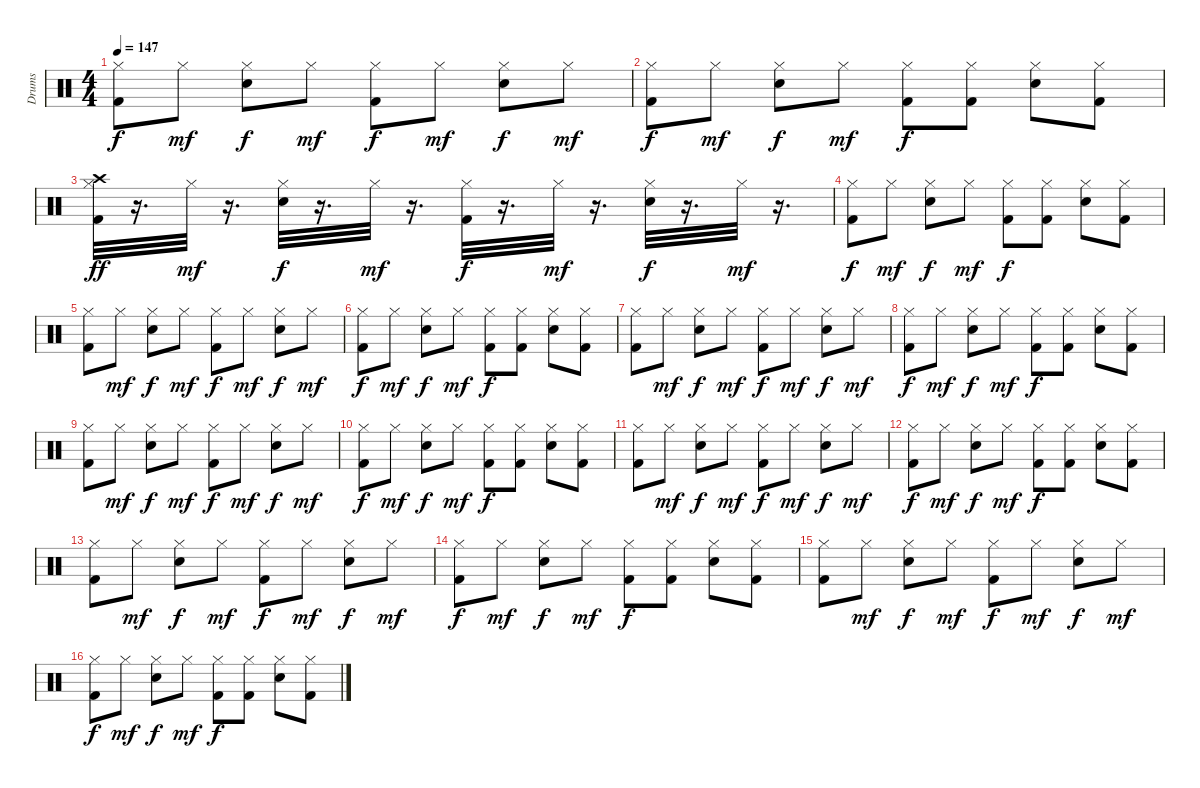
\track ("Drums" "Drums") {instrument percussion}
\staff {score}
\articulation defaults
\ts (4 4)
\tempo 147
\clef neutral
\ks c
("Hi-Hat (closed)" "Kick (hit) 2").8{dy f} "Hi-Hat (closed)".8{dy mf} ("Hi-Hat (closed)" "Snare (hit) 2").8{dy f} "Hi-Hat (closed)".8{dy mf} ("Hi-Hat (closed)" "Kick (hit) 2").8{dy f} "Hi-Hat (closed)".8{dy mf} ("Hi-Hat (closed)" "Snare (hit) 2").8{dy f} "Hi-Hat (closed)".8{dy mf} |
("Hi-Hat (closed)" "Kick (hit) 2").8{dy f} "Hi-Hat (closed)".8{dy mf} ("Hi-Hat (closed)" "Snare (hit) 2").8{dy f} "Hi-Hat (closed)".8{dy mf} ("Hi-Hat (closed)" "Kick (hit) 2").8{dy f} ("Hi-Hat (closed)" "Kick (hit) 2").8 ("Hi-Hat (closed)" "Snare (hit) 2").8 ("Hi-Hat (closed)" "Kick (hit) 2").8 |
("Kick (hit) 2" "Hi-Hat (closed)" "Crash high (hit)").32{dy ff} r.16{d} "Hi-Hat (closed)".32{dy mf} r.16{d} ("Snare (hit) 2" "Hi-Hat (closed)").32{dy f} r.16{d} "Hi-Hat (closed)".32{dy mf} r.16{d} ("Kick (hit) 2" "Hi-Hat (closed)").32{dy f} r.16{d} "Hi-Hat (closed)".32{dy mf} r.16{d} ("Snare (hit) 2" "Hi-Hat (closed)").32{dy f} r.16{d} "Hi-Hat (closed)".32{dy mf} r.16{d} |
("Hi-Hat (closed)" "Kick (hit) 2").8{dy f} "Hi-Hat (closed)".8{dy mf} ("Hi-Hat (closed)" "Snare (hit) 2").8{dy f} "Hi-Hat (closed)".8{dy mf} ("Hi-Hat (closed)" "Kick (hit) 2").8{dy f} ("Hi-Hat (closed)" "Kick (hit) 2").8 ("Hi-Hat (closed)" "Snare (hit) 2").8 ("Hi-Hat (closed)" "Kick (hit) 2").8 |
("Hi-Hat (closed)" "Kick (hit) 2").8 "Hi-Hat (closed)".8{dy mf} ("Hi-Hat (closed)" "Snare (hit) 2").8{dy f} "Hi-Hat (closed)".8{dy mf} ("Hi-Hat (closed)" "Kick (hit) 2").8{dy f} "Hi-Hat (closed)".8{dy mf} ("Hi-Hat (closed)" "Snare (hit) 2").8{dy f} "Hi-Hat (closed)".8{dy mf} |
("Hi-Hat (closed)" "Kick (hit) 2").8{dy f} "Hi-Hat (closed)".8{dy mf} ("Hi-Hat (closed)" "Snare (hit) 2").8{dy f} "Hi-Hat (closed)".8{dy mf} ("Hi-Hat (closed)" "Kick (hit) 2").8{dy f} ("Hi-Hat (closed)" "Kick (hit) 2").8 ("Hi-Hat (closed)" "Snare (hit) 2").8 ("Hi-Hat (closed)" "Kick (hit) 2").8 |
("Hi-Hat (closed)" "Kick (hit) 2").8 "Hi-Hat (closed)".8{dy mf} ("Hi-Hat (closed)" "Snare (hit) 2").8{dy f} "Hi-Hat (closed)".8{dy mf} ("Hi-Hat (closed)" "Kick (hit) 2").8{dy f} "Hi-Hat (closed)".8{dy mf} ("Hi-Hat (closed)" "Snare (hit) 2").8{dy f} "Hi-Hat (closed)".8{dy mf} |
("Hi-Hat (closed)" "Kick (hit) 2").8{dy f} "Hi-Hat (closed)".8{dy mf} ("Hi-Hat (closed)" "Snare (hit) 2").8{dy f} "Hi-Hat (closed)".8{dy mf} ("Hi-Hat (closed)" "Kick (hit) 2").8{dy f} ("Hi-Hat (closed)" "Kick (hit) 2").8 ("Hi-Hat (closed)" "Snare (hit) 2").8 ("Hi-Hat (closed)" "Kick (hit) 2").8 |
("Hi-Hat (closed)" "Kick (hit) 2").8 "Hi-Hat (closed)".8{dy mf} ("Hi-Hat (closed)" "Snare (hit) 2").8{dy f} "Hi-Hat (closed)".8{dy mf} ("Hi-Hat (closed)" "Kick (hit) 2").8{dy f} "Hi-Hat (closed)".8{dy mf} ("Hi-Hat (closed)" "Snare (hit) 2").8{dy f} "Hi-Hat (closed)".8{dy mf} |
("Hi-Hat (closed)" "Kick (hit) 2").8{dy f} "Hi-Hat (closed)".8{dy mf} ("Hi-Hat (closed)" "Snare (hit) 2").8{dy f} "Hi-Hat (closed)".8{dy mf} ("Hi-Hat (closed)" "Kick (hit) 2").8{dy f} ("Hi-Hat (closed)" "Kick (hit) 2").8 ("Hi-Hat (closed)" "Snare (hit) 2").8 ("Hi-Hat (closed)" "Kick (hit) 2").8 |
("Hi-Hat (closed)" "Kick (hit) 2").8 "Hi-Hat (closed)".8{dy mf} ("Hi-Hat (closed)" "Snare (hit) 2").8{dy f} "Hi-Hat (closed)".8{dy mf} ("Hi-Hat (closed)" "Kick (hit) 2").8{dy f} "Hi-Hat (closed)".8{dy mf} ("Hi-Hat (closed)" "Snare (hit) 2").8{dy f} "Hi-Hat (closed)".8{dy mf} |
("Hi-Hat (closed)" "Kick (hit) 2").8{dy f} "Hi-Hat (closed)".8{dy mf} ("Hi-Hat (closed)" "Snare (hit) 2").8{dy f} "Hi-Hat (closed)".8{dy mf} ("Hi-Hat (closed)" "Kick (hit) 2").8{dy f} ("Hi-Hat (closed)" "Kick (hit) 2").8 ("Hi-Hat (closed)" "Snare (hit) 2").8 ("Hi-Hat (closed)" "Kick (hit) 2").8 |
("Hi-Hat (closed)" "Kick (hit) 2").8 "Hi-Hat (closed)".8{dy mf} ("Hi-Hat (closed)" "Snare (hit) 2").8{dy f} "Hi-Hat (closed)".8{dy mf} ("Hi-Hat (closed)" "Kick (hit) 2").8{dy f} "Hi-Hat (closed)".8{dy mf} ("Hi-Hat (closed)" "Snare (hit) 2").8{dy f} "Hi-Hat (closed)".8{dy mf} |
("Hi-Hat (closed)" "Kick (hit) 2").8{dy f} "Hi-Hat (closed)".8{dy mf} ("Hi-Hat (closed)" "Snare (hit) 2").8{dy f} "Hi-Hat (closed)".8{dy mf} ("Hi-Hat (closed)" "Kick (hit) 2").8{dy f} ("Hi-Hat (closed)" "Kick (hit) 2").8 ("Hi-Hat (closed)" "Snare (hit) 2").8 ("Hi-Hat (closed)" "Kick (hit) 2").8 |
("Hi-Hat (closed)" "Kick (hit) 2").8 "Hi-Hat (closed)".8{dy mf} ("Hi-Hat (closed)" "Snare (hit) 2").8{dy f} "Hi-Hat (closed)".8{dy mf} ("Hi-Hat (closed)" "Kick (hit) 2").8{dy f} "Hi-Hat (closed)".8{dy mf} ("Hi-Hat (closed)" "Snare (hit) 2").8{dy f} "Hi-Hat (closed)".8{dy mf} |
("Hi-Hat (closed)" "Kick (hit) 2").8{dy f} "Hi-Hat (closed)".8{dy mf} ("Hi-Hat (closed)" "Snare (hit) 2").8{dy f} "Hi-Hat (closed)".8{dy mf} ("Hi-Hat (closed)" "Kick (hit) 2").8{dy f} ("Hi-Hat (closed)" "Kick (hit) 2").8 ("Hi-Hat (closed)" "Snare (hit) 2").8 ("Hi-Hat (closed)" "Kick (hit) 2").8
